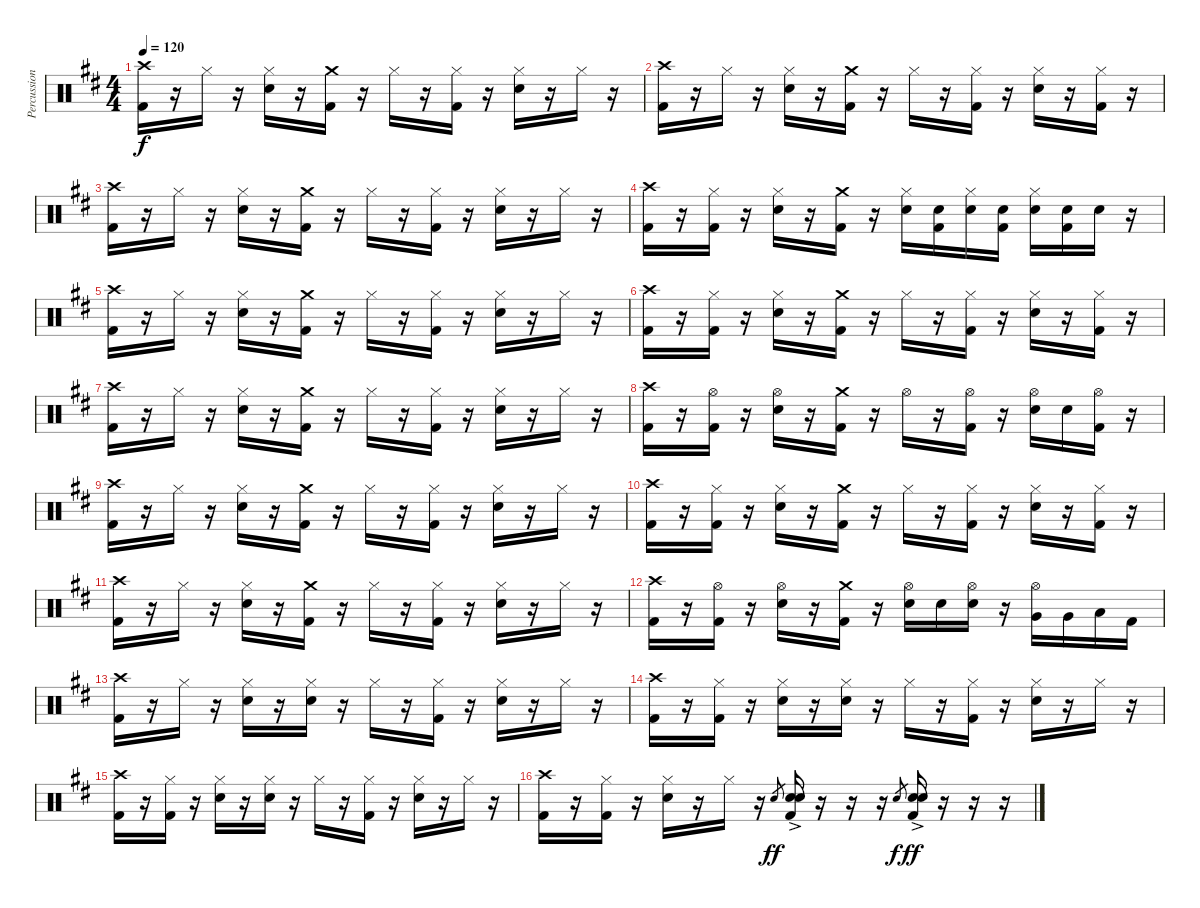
\track ("Percussion" "Percussion") {instrument percussion}
\staff {score}
\articulation defaults
\ts (4 4)
\tempo 120
\clef neutral
\ks d
("Crash high (hit)" "Kick (hit) 2").16{dy f} r.16 "Hi-Hat (closed)".16 r.16 ("Hi-Hat (closed)" "Snare (hit) 2").16 r.16 ("Crash medium (hit)" "Kick (hit) 2").16 r.16 "Hi-Hat (closed)".16 r.16 ("Hi-Hat (closed)" "Kick (hit) 2").16 r.16 ("Hi-Hat (closed)" "Snare (hit) 2").16 r.16 "Hi-Hat (closed)".16 r.16 |
("Crash high (hit)" "Kick (hit) 2").16 r.16 "Hi-Hat (closed)".16 r.16 ("Hi-Hat (closed)" "Snare (hit) 2").16 r.16 ("Crash medium (hit)" "Kick (hit) 2").16 r.16 "Hi-Hat (closed)".16 r.16 ("Hi-Hat (closed)" "Kick (hit) 2").16 r.16 ("Hi-Hat (closed)" "Snare (hit) 2").16 r.16 ("Hi-Hat (closed)" "Kick (hit) 2").16 r.16 |
("Crash high (hit)" "Kick (hit) 2").16 r.16 "Hi-Hat (closed)".16 r.16 ("Hi-Hat (closed)" "Snare (hit) 2").16 r.16 ("Crash medium (hit)" "Kick (hit) 2").16 r.16 "Hi-Hat (closed)".16 r.16 ("Hi-Hat (closed)" "Kick (hit) 2").16 r.16 ("Hi-Hat (closed)" "Snare (hit) 2").16 r.16 "Hi-Hat (closed)".16 r.16 |
("Crash high (hit)" "Kick (hit) 2").16 r.16 ("Hi-Hat (closed)" "Kick (hit) 2").16 r.16 ("Hi-Hat (closed)" "Snare (hit) 2").16 r.16 ("Crash medium (hit)" "Kick (hit) 2").16 r.16 ("Hi-Hat (closed)" "Snare (hit) 2").16 ("Snare (hit) 2" "Kick (hit) 2").16 ("Hi-Hat (closed)" "Snare (hit) 2").16 ("Snare (hit) 2" "Kick (hit) 2").16 ("Hi-Hat (closed)" "Snare (hit) 2").16 ("Snare (hit) 2" "Kick (hit) 2").16 "Snare (hit) 2".16 r.16 |
("Crash high (hit)" "Kick (hit) 2").16 r.16 "Hi-Hat (closed)".16 r.16 ("Hi-Hat (closed)" "Snare (hit) 2").16 r.16 ("Crash medium (hit)" "Kick (hit) 2").16 r.16 "Hi-Hat (closed)".16 r.16 ("Hi-Hat (closed)" "Kick (hit) 2").16 r.16 ("Hi-Hat (closed)" "Snare (hit) 2").16 r.16 "Hi-Hat (closed)".16 r.16 |
("Crash high (hit)" "Kick (hit) 2").16 r.16 ("Hi-Hat (closed)" "Kick (hit) 2").16 r.16 ("Hi-Hat (closed)" "Snare (hit) 2").16 r.16 ("Crash medium (hit)" "Kick (hit) 2").16 r.16 "Hi-Hat (closed)".16 r.16 ("Hi-Hat (closed)" "Kick (hit) 2").16 r.16 ("Hi-Hat (closed)" "Snare (hit) 2").16 r.16 ("Hi-Hat (closed)" "Kick (hit) 2").16 r.16 |
("Crash high (hit)" "Kick (hit) 2").16 r.16 "Hi-Hat (closed)".16 r.16 ("Hi-Hat (closed)" "Snare (hit) 2").16 r.16 ("Crash medium (hit)" "Kick (hit) 2").16 r.16 "Hi-Hat (closed)".16 r.16 ("Hi-Hat (closed)" "Kick (hit) 2").16 r.16 ("Hi-Hat (closed)" "Snare (hit) 2").16 r.16 "Hi-Hat (closed)".16 r.16 |
("Crash high (hit)" "Kick (hit) 2").16 r.16 ("Hi-Hat (open)" "Kick (hit) 2").16 r.16 ("Hi-Hat (open)" "Snare (hit) 2").16 r.16 ("Crash medium (hit)" "Kick (hit) 2").16 r.16 "Hi-Hat (open)".16 r.16 ("Hi-Hat (open)" "Kick (hit) 2").16 r.16 ("Hi-Hat (open)" "Snare (hit) 2").16 "Snare (hit) 2".16 ("Hi-Hat (open)" "Kick (hit) 2").16 r.16 |
("Crash high (hit)" "Kick (hit) 2").16 r.16 "Hi-Hat (closed)".16 r.16 ("Hi-Hat (closed)" "Snare (hit) 2").16 r.16 ("Crash medium (hit)" "Kick (hit) 2").16 r.16 "Hi-Hat (closed)".16 r.16 ("Hi-Hat (closed)" "Kick (hit) 2").16 r.16 ("Hi-Hat (closed)" "Snare (hit) 2").16 r.16 "Hi-Hat (closed)".16 r.16 |
("Crash high (hit)" "Kick (hit) 2").16 r.16 ("Hi-Hat (closed)" "Kick (hit) 2").16 r.16 ("Hi-Hat (closed)" "Snare (hit) 2").16 r.16 ("Crash medium (hit)" "Kick (hit) 2").16 r.16 "Hi-Hat (closed)".16 r.16 ("Hi-Hat (closed)" "Kick (hit) 2").16 r.16 ("Hi-Hat (closed)" "Snare (hit) 2").16 r.16 ("Hi-Hat (closed)" "Kick (hit) 2").16 r.16 |
("Crash high (hit)" "Kick (hit) 2").16 r.16 "Hi-Hat (closed)".16 r.16 ("Hi-Hat (closed)" "Snare (hit) 2").16 r.16 ("Crash medium (hit)" "Kick (hit) 2").16 r.16 "Hi-Hat (closed)".16 r.16 ("Hi-Hat (closed)" "Kick (hit) 2").16 r.16 ("Hi-Hat (closed)" "Snare (hit) 2").16 r.16 "Hi-Hat (closed)".16 r.16 |
("Crash high (hit)" "Kick (hit) 2").16 r.16 ("Hi-Hat (open)" "Kick (hit) 2").16 r.16 ("Hi-Hat (open)" "Snare (hit) 2").16 r.16 ("Crash medium (hit)" "Kick (hit) 2").16 r.16 ("Hi-Hat (open)" "Snare (hit) 2").16 "Snare (hit) 2".16 ("Hi-Hat (open)" "Snare (hit) 2").16 r.16 ("Hi-Hat (open)" "Very Low Tom (hit)").16 "Very Low Tom (hit)".16 "Low Tom (hit)".16 "Kick (hit) 2".16 |
("Crash high (hit)" "Kick (hit) 2").16 r.16 "Hi-Hat (closed)".16 r.16 ("Hi-Hat (closed)" "Snare (hit) 2").16 r.16 ("Hi-Hat (closed)" "Snare (hit) 2").16 r.16 "Hi-Hat (closed)".16 r.16 ("Hi-Hat (closed)" "Kick (hit) 2").16 r.16 ("Hi-Hat (closed)" "Snare (hit) 2").16 r.16 "Hi-Hat (closed)".16 r.16 |
("Crash high (hit)" "Kick (hit) 2").16 r.16 ("Hi-Hat (closed)" "Kick (hit) 2").16 r.16 ("Hi-Hat (closed)" "Snare (hit) 2").16 r.16 ("Hi-Hat (closed)" "Snare (hit) 2").16 r.16 "Hi-Hat (closed)".16 r.16 ("Hi-Hat (closed)" "Kick (hit) 2").16 r.16 ("Hi-Hat (closed)" "Snare (hit) 2").16 r.16 "Hi-Hat (closed)".16 r.16 |
("Crash high (hit)" "Kick (hit) 2").16 r.16 ("Hi-Hat (closed)" "Kick (hit) 2").16 r.16 ("Hi-Hat (closed)" "Snare (hit) 2").16 r.16 ("Hi-Hat (closed)" "Snare (hit) 2").16 r.16 "Hi-Hat (closed)".16 r.16 ("Hi-Hat (closed)" "Kick (hit) 2").16 r.16 ("Hi-Hat (closed)" "Snare (hit) 2").16 r.16 "Hi-Hat (closed)".16 r.16 |
("Crash high (hit)" "Kick (hit) 2").16 r.16 ("Hi-Hat (closed)" "Kick (hit) 2").16 r.16 ("Hi-Hat (closed)" "Snare (hit) 2").16 r.16 "Hi-Hat (closed)".16 r.16 "Snare (hit) 2".8{gr dy ff} ("Electric Snare (hit)"{ac} "Snare (hit) 2"{ac} "Kick (hit) 2"{ac}).16 r.16 r.16 r.16 "Snare (hit) 2".8{gr dy f} ("Electric Snare (hit)"{ac} "Snare (hit) 2"{ac} "Kick (hit) 2"{ac}).16{dy ff} r.16 r.16 r.16
